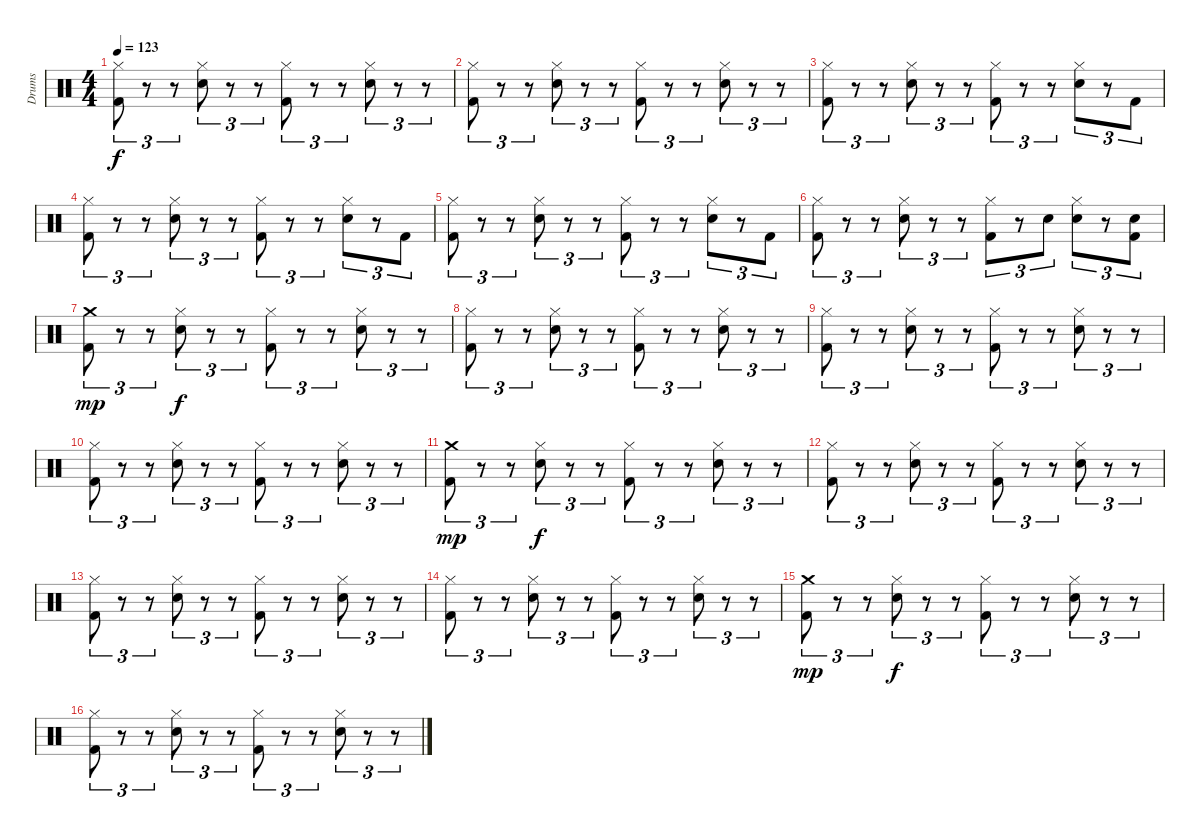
\track ("Drums" "Drums") {instrument percussion}
\staff {score}
\articulation defaults
\ts (4 4)
\tempo 123
\clef neutral
\ks c
("Hi-Hat (closed)" "Kick (hit) 2").8{tu (3 2) dy f} r.8{tu (3 2)} r.8{tu (3 2)} ("Hi-Hat (closed)" "Snare (hit) 2").8{tu (3 2)} r.8{tu (3 2)} r.8{tu (3 2)} ("Hi-Hat (closed)" "Kick (hit) 2").8{tu (3 2)} r.8{tu (3 2)} r.8{tu (3 2)} ("Hi-Hat (closed)" "Snare (hit) 2").8{tu (3 2)} r.8{tu (3 2)} r.8{tu (3 2)} |
("Hi-Hat (closed)" "Kick (hit) 2").8{tu (3 2)} r.8{tu (3 2)} r.8{tu (3 2)} ("Hi-Hat (closed)" "Snare (hit) 2").8{tu (3 2)} r.8{tu (3 2)} r.8{tu (3 2)} ("Hi-Hat (closed)" "Kick (hit) 2").8{tu (3 2)} r.8{tu (3 2)} r.8{tu (3 2)} ("Hi-Hat (closed)" "Snare (hit) 2").8{tu (3 2)} r.8{tu (3 2)} r.8{tu (3 2)} |
("Hi-Hat (closed)" "Kick (hit) 2").8{tu (3 2)} r.8{tu (3 2)} r.8{tu (3 2)} ("Hi-Hat (closed)" "Snare (hit) 2").8{tu (3 2)} r.8{tu (3 2)} r.8{tu (3 2)} ("Hi-Hat (closed)" "Kick (hit) 2").8{tu (3 2)} r.8{tu (3 2)} r.8{tu (3 2)} ("Hi-Hat (closed)" "Snare (hit) 2").8{tu (3 2)} r.8{tu (3 2)} "Kick (hit) 2".8{tu (3 2)} |
("Hi-Hat (closed)" "Kick (hit) 2").8{tu (3 2)} r.8{tu (3 2)} r.8{tu (3 2)} ("Hi-Hat (closed)" "Snare (hit) 2").8{tu (3 2)} r.8{tu (3 2)} r.8{tu (3 2)} ("Hi-Hat (closed)" "Kick (hit) 2").8{tu (3 2)} r.8{tu (3 2)} r.8{tu (3 2)} ("Hi-Hat (closed)" "Snare (hit) 2").8{tu (3 2)} r.8{tu (3 2)} "Kick (hit) 2".8{tu (3 2)} |
("Hi-Hat (closed)" "Kick (hit) 2").8{tu (3 2)} r.8{tu (3 2)} r.8{tu (3 2)} ("Hi-Hat (closed)" "Snare (hit) 2").8{tu (3 2)} r.8{tu (3 2)} r.8{tu (3 2)} ("Hi-Hat (closed)" "Kick (hit) 2").8{tu (3 2)} r.8{tu (3 2)} r.8{tu (3 2)} ("Hi-Hat (closed)" "Snare (hit) 2").8{tu (3 2)} r.8{tu (3 2)} "Kick (hit) 2".8{tu (3 2)} |
("Hi-Hat (closed)" "Kick (hit) 2").8{tu (3 2)} r.8{tu (3 2)} r.8{tu (3 2)} ("Hi-Hat (closed)" "Snare (hit) 2").8{tu (3 2)} r.8{tu (3 2)} r.8{tu (3 2)} ("Hi-Hat (closed)" "Kick (hit) 2").8{tu (3 2)} r.8{tu (3 2)} "Snare (hit) 2".8{tu (3 2)} ("Hi-Hat (closed)" "Snare (hit) 2").8{tu (3 2)} r.8{tu (3 2)} ("Snare (hit) 2" "Kick (hit) 2").8{tu (3 2)} |
("Crash medium (hit)" "Kick (hit) 2").8{tu (3 2) dy mp} r.8{tu (3 2)} r.8{tu (3 2)} ("Hi-Hat (closed)" "Snare (hit) 2").8{tu (3 2) dy f} r.8{tu (3 2)} r.8{tu (3 2)} ("Hi-Hat (closed)" "Kick (hit) 2").8{tu (3 2)} r.8{tu (3 2)} r.8{tu (3 2)} ("Hi-Hat (closed)" "Snare (hit) 2").8{tu (3 2)} r.8{tu (3 2)} r.8{tu (3 2)} |
("Hi-Hat (closed)" "Kick (hit) 2").8{tu (3 2)} r.8{tu (3 2)} r.8{tu (3 2)} ("Hi-Hat (closed)" "Snare (hit) 2").8{tu (3 2)} r.8{tu (3 2)} r.8{tu (3 2)} ("Hi-Hat (closed)" "Kick (hit) 2").8{tu (3 2)} r.8{tu (3 2)} r.8{tu (3 2)} ("Hi-Hat (closed)" "Snare (hit) 2").8{tu (3 2)} r.8{tu (3 2)} r.8{tu (3 2)} |
("Hi-Hat (closed)" "Kick (hit) 2").8{tu (3 2)} r.8{tu (3 2)} r.8{tu (3 2)} ("Hi-Hat (closed)" "Snare (hit) 2").8{tu (3 2)} r.8{tu (3 2)} r.8{tu (3 2)} ("Hi-Hat (closed)" "Kick (hit) 2").8{tu (3 2)} r.8{tu (3 2)} r.8{tu (3 2)} ("Hi-Hat (closed)" "Snare (hit) 2").8{tu (3 2)} r.8{tu (3 2)} r.8{tu (3 2)} |
("Hi-Hat (closed)" "Kick (hit) 2").8{tu (3 2)} r.8{tu (3 2)} r.8{tu (3 2)} ("Hi-Hat (closed)" "Snare (hit) 2").8{tu (3 2)} r.8{tu (3 2)} r.8{tu (3 2)} ("Hi-Hat (closed)" "Kick (hit) 2").8{tu (3 2)} r.8{tu (3 2)} r.8{tu (3 2)} ("Hi-Hat (closed)" "Snare (hit) 2").8{tu (3 2)} r.8{tu (3 2)} r.8{tu (3 2)} |
("Crash medium (hit)" "Kick (hit) 2").8{tu (3 2) dy mp} r.8{tu (3 2)} r.8{tu (3 2)} ("Hi-Hat (closed)" "Snare (hit) 2").8{tu (3 2) dy f} r.8{tu (3 2)} r.8{tu (3 2)} ("Hi-Hat (closed)" "Kick (hit) 2").8{tu (3 2)} r.8{tu (3 2)} r.8{tu (3 2)} ("Hi-Hat (closed)" "Snare (hit) 2").8{tu (3 2)} r.8{tu (3 2)} r.8{tu (3 2)} |
("Hi-Hat (closed)" "Kick (hit) 2").8{tu (3 2)} r.8{tu (3 2)} r.8{tu (3 2)} ("Hi-Hat (closed)" "Snare (hit) 2").8{tu (3 2)} r.8{tu (3 2)} r.8{tu (3 2)} ("Hi-Hat (closed)" "Kick (hit) 2").8{tu (3 2)} r.8{tu (3 2)} r.8{tu (3 2)} ("Hi-Hat (closed)" "Snare (hit) 2").8{tu (3 2)} r.8{tu (3 2)} r.8{tu (3 2)} |
("Hi-Hat (closed)" "Kick (hit) 2").8{tu (3 2)} r.8{tu (3 2)} r.8{tu (3 2)} ("Hi-Hat (closed)" "Snare (hit) 2").8{tu (3 2)} r.8{tu (3 2)} r.8{tu (3 2)} ("Hi-Hat (closed)" "Kick (hit) 2").8{tu (3 2)} r.8{tu (3 2)} r.8{tu (3 2)} ("Hi-Hat (closed)" "Snare (hit) 2").8{tu (3 2)} r.8{tu (3 2)} r.8{tu (3 2)} |
("Hi-Hat (closed)" "Kick (hit) 2").8{tu (3 2)} r.8{tu (3 2)} r.8{tu (3 2)} ("Hi-Hat (closed)" "Snare (hit) 2").8{tu (3 2)} r.8{tu (3 2)} r.8{tu (3 2)} ("Hi-Hat (closed)" "Kick (hit) 2").8{tu (3 2)} r.8{tu (3 2)} r.8{tu (3 2)} ("Hi-Hat (closed)" "Snare (hit) 2").8{tu (3 2)} r.8{tu (3 2)} r.8{tu (3 2)} |
("Crash medium (hit)" "Kick (hit) 2").8{tu (3 2) dy mp} r.8{tu (3 2)} r.8{tu (3 2)} ("Hi-Hat (closed)" "Snare (hit) 2").8{tu (3 2) dy f} r.8{tu (3 2)} r.8{tu (3 2)} ("Hi-Hat (closed)" "Kick (hit) 2").8{tu (3 2)} r.8{tu (3 2)} r.8{tu (3 2)} ("Hi-Hat (closed)" "Snare (hit) 2").8{tu (3 2)} r.8{tu (3 2)} r.8{tu (3 2)} |
("Hi-Hat (closed)" "Kick (hit) 2").8{tu (3 2)} r.8{tu (3 2)} r.8{tu (3 2)} ("Hi-Hat (closed)" "Snare (hit) 2").8{tu (3 2)} r.8{tu (3 2)} r.8{tu (3 2)} ("Hi-Hat (closed)" "Kick (hit) 2").8{tu (3 2)} r.8{tu (3 2)} r.8{tu (3 2)} ("Hi-Hat (closed)" "Snare (hit) 2").8{tu (3 2)} r.8{tu (3 2)} r.8{tu (3 2)}
